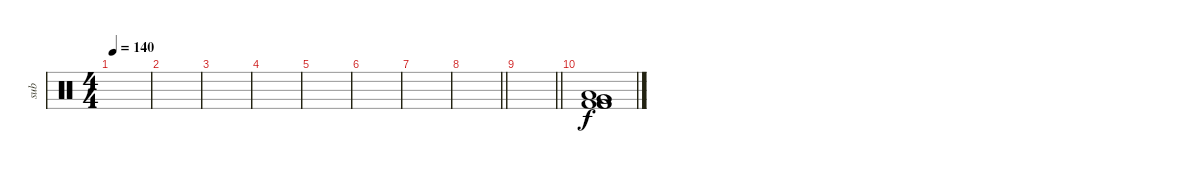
\track ("sub" "sub") {instrument percussion}
\staff {score}
\articulation defaults
\ts (4 4)
\section ("" "")
\tempo 140
\clef neutral
\ks c
|
|
|
|
|
|
|
\barLineRight lightlight
|
\barLineRight lightlight
|
\section ("" "")
("Very Low Tom (hit)" "Very Low Tom (hit)" "Low Floor Tom (hit)" "Kick (hit) 2" "Kick (hit) 2" "Kick (hit) 2").1
